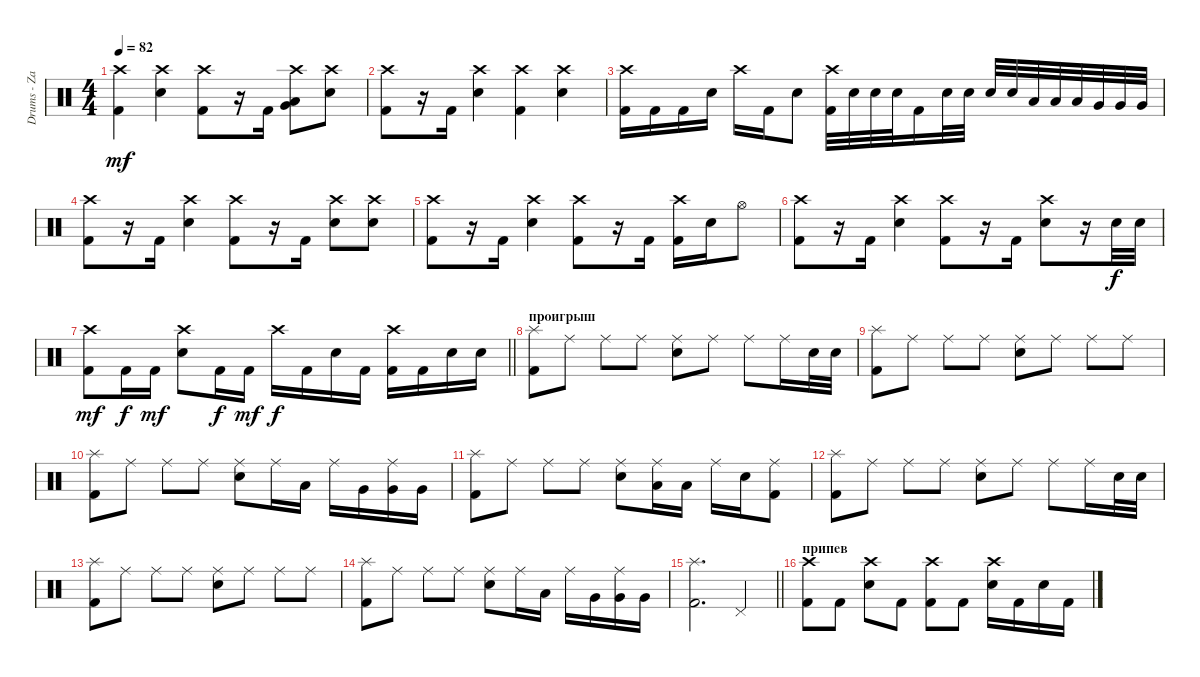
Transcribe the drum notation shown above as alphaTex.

\track ("Drums - Zac Farro" "Drums - Za") {instrument percussion}
\staff {score}
\articulation defaults
\ts (4 4)
\tempo 82
\clef neutral
\ks c
("Crash high (hit)" "Kick (hit) 2").4{dy mf} ("Crash high (hit)" "Snare (hit) 2").4 ("Crash high (hit)" "Kick (hit) 2").8 r.16 "Kick (hit) 2".16 ("Crash high (hit)" "Low Tom (hit)" "Very Low Tom (hit)").8 ("Crash high (hit)" "Snare (hit) 2").8 |
("Crash high (hit)" "Kick (hit) 2").8 r.16 "Kick (hit) 2".16 ("Crash high (hit)" "Snare (hit) 2").4 ("Crash high (hit)" "Kick (hit) 2").4 ("Crash high (hit)" "Snare (hit) 2").4 |
("Crash high (hit)" "Kick (hit) 2").16 "Kick (hit) 2".16 "Kick (hit) 2".16 "Snare (hit) 2".16 "Crash high (hit)".16 "Kick (hit) 2".16 "Snare (hit) 2".8 ("Crash high (hit)" "Kick (hit) 2").32 "Snare (hit) 2".32 "Snare (hit) 2".32 "Snare (hit) 2".32 "Kick (hit) 2".16 "Snare (hit) 2".32 "Snare (hit) 2".32 "Snare (hit) 2".32 "Snare (hit) 2".32 "Low Tom (hit)".32 "Low Tom (hit)".32 "Low Tom (hit)".32 "Very Low Tom (hit)".32 "Very Low Tom (hit)".32 "Very Low Tom (hit)".32 |
("Crash high (hit)" "Kick (hit) 2").8 r.16 "Kick (hit) 2".16 ("Crash high (hit)" "Snare (hit) 2").4 ("Crash high (hit)" "Kick (hit) 2").8 r.16 "Kick (hit) 2".16 ("Crash high (hit)" "Snare (hit) 2").8 ("Crash high (hit)" "Snare (hit) 2").8 |
("Crash high (hit)" "Kick (hit) 2").8 r.16 "Kick (hit) 2".16 ("Crash high (hit)" "Snare (hit) 2").4 ("Crash high (hit)" "Kick (hit) 2").8 r.16 "Kick (hit) 2".16 ("Crash high (hit)" "Kick (hit) 2").16 "Snare (hit) 2".16 "Hi-Hat (open)".8 |
("Crash high (hit)" "Kick (hit) 2").8 r.16 "Kick (hit) 2".16 ("Crash high (hit)" "Snare (hit) 2").4 ("Crash high (hit)" "Kick (hit) 2").8 r.16 "Kick (hit) 2".16 ("Crash high (hit)" "Snare (hit) 2").8 r.16 "Snare (hit) 2".32{dy f} "Snare (hit) 2".32 |
\barLineRight lightlight
("Crash high (hit)" "Kick (hit) 2").8{dy mf} "Kick (hit) 2".16{dy f} "Kick (hit) 2".16{dy mf} ("Crash high (hit)" "Snare (hit) 2").8 "Kick (hit) 2".16{dy f} "Kick (hit) 2".16{dy mf} "Crash high (hit)".16{dy f} "Kick (hit) 2".16 "Snare (hit) 2".16 "Kick (hit) 2".16 ("Crash high (hit)" "Kick (hit) 2").16 "Kick (hit) 2".16 "Snare (hit) 2".16 "Snare (hit) 2".16 |
\section ("" "проигрыш")
("Splash (hit)" "Kick (hit) 2").8 "Ride (middle)".8 "Ride (middle)".8 "Ride (middle)".8 ("Ride (middle)" "Snare (hit) 2").8 "Ride (middle)".8 "Ride (middle)".8 "Ride (middle)".16 "Snare (hit) 2".32 "Snare (hit) 2".32 |
("Splash (hit)" "Kick (hit) 2").8 "Ride (middle)".8 "Ride (middle)".8 "Ride (middle)".8 ("Ride (middle)" "Snare (hit) 2").8 "Ride (middle)".8 "Ride (middle)".8 "Ride (middle)".8 |
("Splash (hit)" "Kick (hit) 2").8 "Ride (middle)".8 "Ride (middle)".8 "Ride (middle)".8 ("Ride (middle)" "Snare (hit) 2").8 "Ride (middle)".16 "Low Tom (hit)".16 "Ride (middle)".16 "Very Low Tom (hit)".16 ("Ride (middle)" "Very Low Tom (hit)").16 "Very Low Tom (hit)".16 |
("Splash (hit)" "Kick (hit) 2").8 "Ride (middle)".8 "Ride (middle)".8 "Ride (middle)".8 ("Ride (middle)" "Snare (hit) 2").8 ("Ride (middle)" "Low Tom (hit)").16 "Low Tom (hit)".16 "Ride (middle)".16 "Snare (hit) 2".16 ("Ride (middle)" "Kick (hit) 2").8 |
("Splash (hit)" "Kick (hit) 2").8 "Ride (middle)".8 "Ride (middle)".8 "Ride (middle)".8 ("Ride (middle)" "Snare (hit) 2").8 "Ride (middle)".8 "Ride (middle)".8 "Ride (middle)".16 "Snare (hit) 2".32 "Snare (hit) 2".32 |
("Splash (hit)" "Kick (hit) 2").8 "Ride (middle)".8 "Ride (middle)".8 "Ride (middle)".8 ("Ride (middle)" "Snare (hit) 2").8 "Ride (middle)".8 "Ride (middle)".8 "Ride (middle)".8 |
("Splash (hit)" "Kick (hit) 2").8 "Ride (middle)".8 "Ride (middle)".8 "Ride (middle)".8 ("Ride (middle)" "Snare (hit) 2").8 "Ride (middle)".16 "Low Tom (hit)".16 "Ride (middle)".16 "Very Low Tom (hit)".16 ("Ride (middle)" "Very Low Tom (hit)").16 "Very Low Tom (hit)".16 |
\barLineRight lightlight
("Splash (hit)" "Kick (hit) 2").2{d} "Pedal Hi-Hat (hit)".4 |
\section ("" "припев")
("Crash high (hit)" "Kick (hit) 2").8 "Kick (hit) 2".8 ("Crash high (hit)" "Snare (hit) 2").8 "Kick (hit) 2".8 ("Crash high (hit)" "Kick (hit) 2").8 "Kick (hit) 2".8 ("Crash high (hit)" "Snare (hit) 2").16 "Kick (hit) 2".16 "Snare (hit) 2".16 "Kick (hit) 2".16
